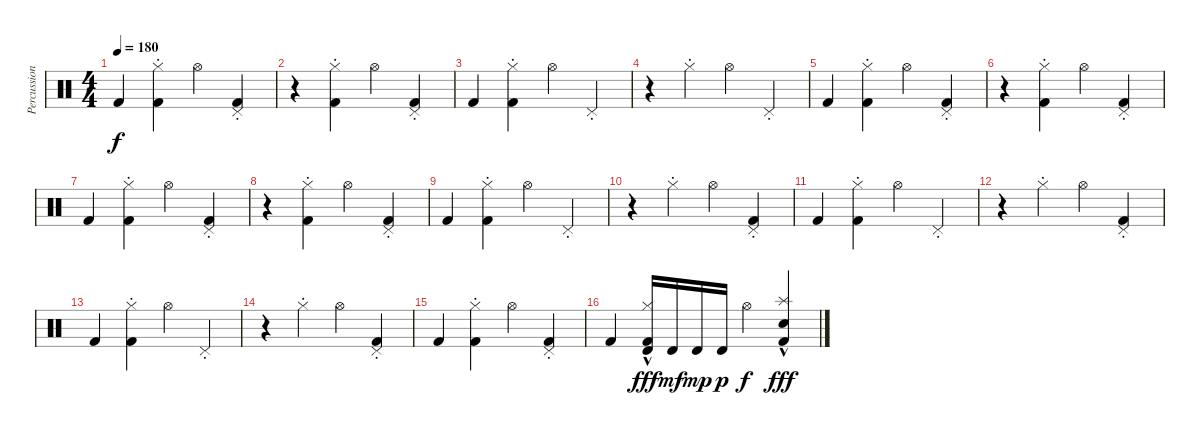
\track ("Percussion" "Percussion") {instrument percussion}
\staff {score}
\articulation defaults
\ts (4 4)
\tempo 180
\clef neutral
\ks c "Kick (hit) 2".4{dy f}
("Hi-Hat (closed)"{st} "Kick (hit) 2").4 "Hi-Hat (open)".4 ("Pedal Hi-Hat (hit)"{st} "Kick (hit) 2").4 |
r.4 ("Hi-Hat (closed)"{st} "Kick (hit) 2").4 "Hi-Hat (open)".4 ("Pedal Hi-Hat (hit)"{st} "Kick (hit) 2").4 |
"Kick (hit) 2".4 ("Hi-Hat (closed)"{st} "Kick (hit) 2").4 "Hi-Hat (open)".4 "Pedal Hi-Hat (hit)"{st}.4 |
r.4 "Hi-Hat (closed)"{st}.4 "Hi-Hat (open)".4 "Pedal Hi-Hat (hit)"{st}.4 |
"Kick (hit) 2".4 ("Hi-Hat (closed)"{st} "Kick (hit) 2").4 "Hi-Hat (open)".4 ("Pedal Hi-Hat (hit)"{st} "Kick (hit) 2").4 |
r.4 ("Hi-Hat (closed)"{st} "Kick (hit) 2").4 "Hi-Hat (open)".4 ("Pedal Hi-Hat (hit)"{st} "Kick (hit) 2").4 |
"Kick (hit) 2".4 ("Hi-Hat (closed)"{st} "Kick (hit) 2").4 "Hi-Hat (open)".4 ("Pedal Hi-Hat (hit)"{st} "Kick (hit) 2").4 |
r.4 ("Hi-Hat (closed)"{st} "Kick (hit) 2").4 "Hi-Hat (open)".4 ("Pedal Hi-Hat (hit)"{st} "Kick (hit) 2").4 |
"Kick (hit) 2".4 ("Hi-Hat (closed)"{st} "Kick (hit) 2").4 "Hi-Hat (open)".4 "Pedal Hi-Hat (hit)"{st}.4 |
r.4 "Hi-Hat (closed)"{st}.4 "Hi-Hat (open)".4 ("Pedal Hi-Hat (hit)"{st} "Kick (hit) 2").4 |
"Kick (hit) 2".4 ("Hi-Hat (closed)"{st} "Kick (hit) 2").4 "Hi-Hat (open)".4 "Pedal Hi-Hat (hit)"{st}.4 |
r.4 "Hi-Hat (closed)"{st}.4 "Hi-Hat (open)".4 ("Pedal Hi-Hat (hit)"{st} "Kick (hit) 2").4 |
"Kick (hit) 2".4 ("Hi-Hat (closed)"{st} "Kick (hit) 2").4 "Hi-Hat (open)".4 "Pedal Hi-Hat (hit)"{st}.4 |
r.4 "Hi-Hat (closed)"{st}.4 "Hi-Hat (open)".4 ("Pedal Hi-Hat (hit)"{st} "Kick (hit) 2").4 |
"Kick (hit) 2".4 ("Hi-Hat (closed)"{st} "Kick (hit) 2").4 "Hi-Hat (open)".4 ("Pedal Hi-Hat (hit)"{st} "Kick (hit) 2").4 |
"Kick (hit) 2".4 ("Hi-Hat (closed)" "Timbale high (hit)"{hac} "Kick (hit) 2").16{dy fff} "Timbale high (hit)".16{dy mf} "Timbale high (hit)".16{dy mp} "Timbale high (hit)".16{dy p} "Hi-Hat (open)".4{dy f} ("Splash (hit)"{hac} "Electric Snare (hit)" "Kick (hit) 2").4{dy fff}
